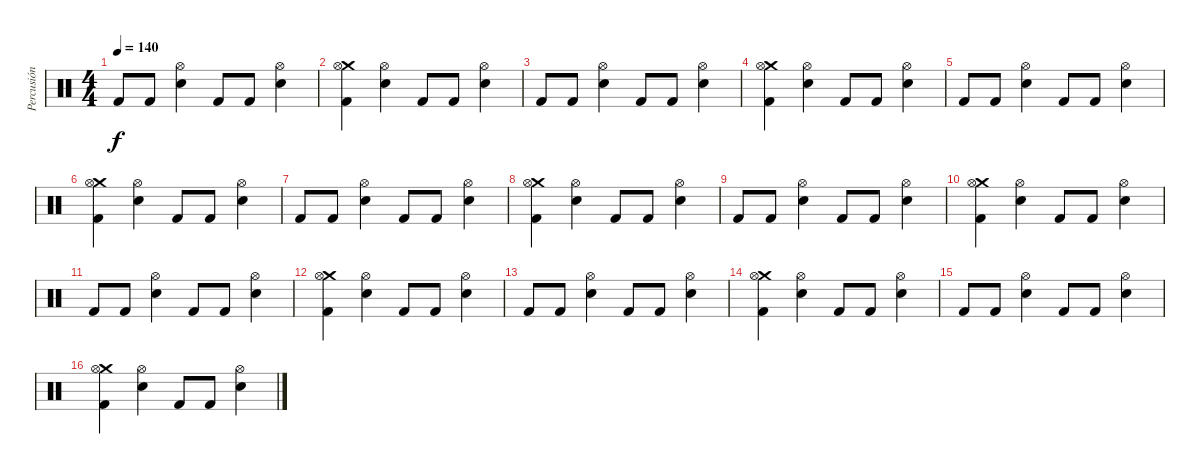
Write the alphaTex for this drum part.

\track ("Percusión" "Percusión") {instrument percussion}
\staff {score}
\articulation defaults
\ts (4 4)
\tempo 140
\clef neutral
\ks c "Kick (hit) 2".8{dy f} "Kick (hit) 2".8
("Hi-Hat (open)" "Snare (hit) 2").4 "Kick (hit) 2".8 "Kick (hit) 2".8 ("Hi-Hat (open)" "Snare (hit) 2").4 |
("Crash medium (hit)" "Hi-Hat (open)" "Kick (hit) 2").4 ("Hi-Hat (open)" "Snare (hit) 2").4 "Kick (hit) 2".8 "Kick (hit) 2".8 ("Hi-Hat (open)" "Snare (hit) 2").4 |
"Kick (hit) 2".8 "Kick (hit) 2".8 ("Hi-Hat (open)" "Snare (hit) 2").4 "Kick (hit) 2".8 "Kick (hit) 2".8 ("Hi-Hat (open)" "Snare (hit) 2").4 |
("Crash medium (hit)" "Hi-Hat (open)" "Kick (hit) 2").4 ("Hi-Hat (open)" "Snare (hit) 2").4 "Kick (hit) 2".8 "Kick (hit) 2".8 ("Hi-Hat (open)" "Snare (hit) 2").4 |
"Kick (hit) 2".8 "Kick (hit) 2".8 ("Hi-Hat (open)" "Snare (hit) 2").4 "Kick (hit) 2".8 "Kick (hit) 2".8 ("Hi-Hat (open)" "Snare (hit) 2").4 |
("Crash medium (hit)" "Hi-Hat (open)" "Kick (hit) 2").4 ("Hi-Hat (open)" "Snare (hit) 2").4 "Kick (hit) 2".8 "Kick (hit) 2".8 ("Hi-Hat (open)" "Snare (hit) 2").4 |
"Kick (hit) 2".8 "Kick (hit) 2".8 ("Hi-Hat (open)" "Snare (hit) 2").4 "Kick (hit) 2".8 "Kick (hit) 2".8 ("Hi-Hat (open)" "Snare (hit) 2").4 |
("Crash medium (hit)" "Hi-Hat (open)" "Kick (hit) 2").4 ("Hi-Hat (open)" "Snare (hit) 2").4 "Kick (hit) 2".8 "Kick (hit) 2".8 ("Hi-Hat (open)" "Snare (hit) 2").4 |
"Kick (hit) 2".8 "Kick (hit) 2".8 ("Hi-Hat (open)" "Snare (hit) 2").4 "Kick (hit) 2".8 "Kick (hit) 2".8 ("Hi-Hat (open)" "Snare (hit) 2").4 |
("Crash medium (hit)" "Hi-Hat (open)" "Kick (hit) 2").4 ("Hi-Hat (open)" "Snare (hit) 2").4 "Kick (hit) 2".8 "Kick (hit) 2".8 ("Hi-Hat (open)" "Snare (hit) 2").4 |
"Kick (hit) 2".8 "Kick (hit) 2".8 ("Hi-Hat (open)" "Snare (hit) 2").4 "Kick (hit) 2".8 "Kick (hit) 2".8 ("Hi-Hat (open)" "Snare (hit) 2").4 |
("Crash medium (hit)" "Hi-Hat (open)" "Kick (hit) 2").4 ("Hi-Hat (open)" "Snare (hit) 2").4 "Kick (hit) 2".8 "Kick (hit) 2".8 ("Hi-Hat (open)" "Snare (hit) 2").4 |
"Kick (hit) 2".8 "Kick (hit) 2".8 ("Hi-Hat (open)" "Snare (hit) 2").4 "Kick (hit) 2".8 "Kick (hit) 2".8 ("Hi-Hat (open)" "Snare (hit) 2").4 |
("Crash medium (hit)" "Hi-Hat (open)" "Kick (hit) 2").4 ("Hi-Hat (open)" "Snare (hit) 2").4 "Kick (hit) 2".8 "Kick (hit) 2".8 ("Hi-Hat (open)" "Snare (hit) 2").4 |
"Kick (hit) 2".8 "Kick (hit) 2".8 ("Hi-Hat (open)" "Snare (hit) 2").4 "Kick (hit) 2".8 "Kick (hit) 2".8 ("Hi-Hat (open)" "Snare (hit) 2").4 |
("Crash medium (hit)" "Hi-Hat (open)" "Kick (hit) 2").4 ("Hi-Hat (open)" "Snare (hit) 2").4 "Kick (hit) 2".8 "Kick (hit) 2".8 ("Hi-Hat (open)" "Snare (hit) 2").4
